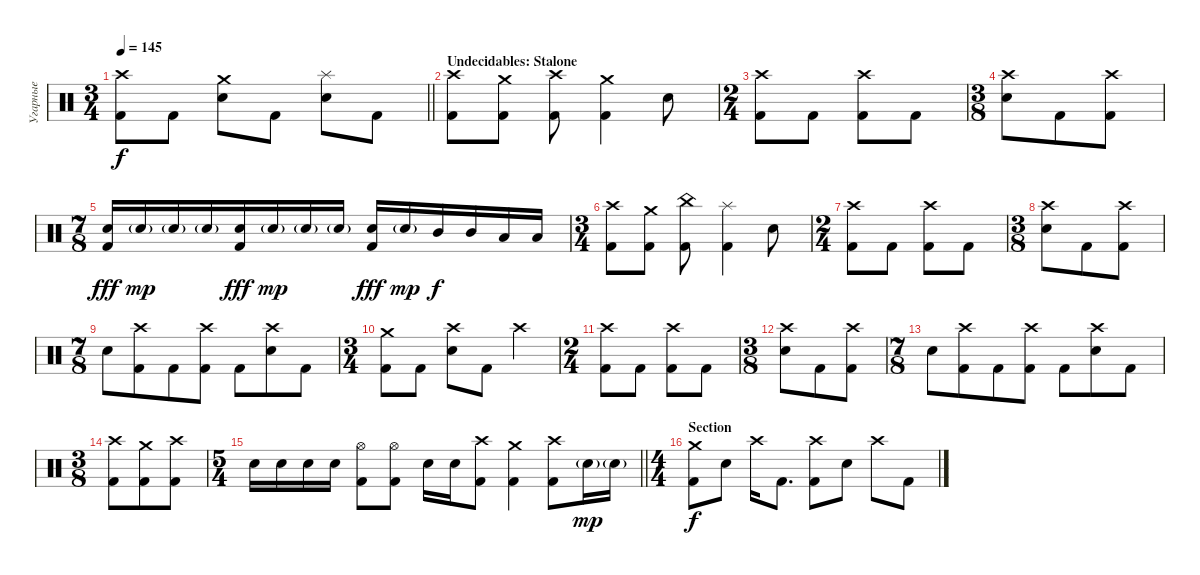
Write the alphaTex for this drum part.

\track ("Угарные" "Угарные") {instrument percussion}
\staff {score}
\articulation defaults
\ts (3 4)
\tempo 145
\clef neutral
\barLineRight lightlight
\ks c
("Kick (hit) 2" "Crash high (hit)").8{dy f} "Kick (hit) 2".8 ("Crash medium (hit)" "Electric Snare (hit)").8 "Kick (hit) 2".8 ("Splash (hit)" "Electric Snare (hit)").8 "Kick (hit) 2".8 |
\section ("" "Undecidables: Stalone")
("Crash high (hit)" "Kick (hit) 2").8 ("Crash medium (hit)" "Kick (hit) 2").8 ("Crash high (hit)" "Kick (hit) 2").8 ("Crash medium (hit)" "Kick (hit) 2").4 "Electric Snare (hit)".8 |
\ts (2 4)
("Kick (hit) 2" "Crash high (hit)").8 "Kick (hit) 2".8 ("Kick (hit) 2" "Crash high (hit)").8 "Kick (hit) 2".8 |
\ts (3 8)
("Electric Snare (hit)" "Crash high (hit)").8 "Kick (hit) 2".8 ("Kick (hit) 2" "Crash high (hit)").8 |
\ts (7 8)
("Electric Snare (hit)" "Kick (hit) 2").16{dy fff} "Electric Snare (hit)"{g}.16{dy mp} "Electric Snare (hit)"{g}.16 "Electric Snare (hit)"{g}.16 ("Electric Snare (hit)" "Kick (hit) 2").16{dy fff} "Electric Snare (hit)"{g}.16{dy mp} "Electric Snare (hit)"{g}.16 "Electric Snare (hit)"{g}.16 ("Electric Snare (hit)" "Kick (hit) 2").16{dy fff} "Electric Snare (hit)"{g}.16{dy mp} "Mid Tom (hit)".16{dy f} "Mid Tom (hit)".16 "Low Tom (hit)".16 "Low Tom (hit)".16 |
\ts (3 4)
("Crash high (hit)" "Kick (hit) 2").8 ("Crash medium (hit)" "Kick (hit) 2").8 ("China (hit)" "Kick (hit) 2").8 ("Splash (hit)" "Kick (hit) 2").4 "Electric Snare (hit)".8 |
\ts (2 4)
("Kick (hit) 2" "Crash high (hit)").8 "Kick (hit) 2".8 ("Kick (hit) 2" "Crash high (hit)").8 "Kick (hit) 2".8 |
\ts (3 8)
("Electric Snare (hit)" "Crash high (hit)").8 "Kick (hit) 2".8 ("Kick (hit) 2" "Crash high (hit)").8 |
\ts (7 8)
"Electric Snare (hit)".8 ("Kick (hit) 2" "Crash high (hit)").8 "Kick (hit) 2".8 ("Kick (hit) 2" "Crash high (hit)").8 "Kick (hit) 2".8 ("Electric Snare (hit)" "Crash high (hit)").8 "Kick (hit) 2".8 |
\ts (3 4)
("Kick (hit) 2" "Crash medium (hit)").8 "Kick (hit) 2".8 ("Electric Snare (hit)" "Crash high (hit)").8 "Kick (hit) 2".8 "Crash high (hit)".4 |
\ts (2 4)
("Kick (hit) 2" "Crash high (hit)").8 "Kick (hit) 2".8 ("Kick (hit) 2" "Crash high (hit)").8 "Kick (hit) 2".8 |
\ts (3 8)
("Electric Snare (hit)" "Crash high (hit)").8 "Kick (hit) 2".8 ("Kick (hit) 2" "Crash high (hit)").8 |
\ts (7 8)
"Electric Snare (hit)".8 ("Kick (hit) 2" "Crash high (hit)").8 "Kick (hit) 2".8 ("Kick (hit) 2" "Crash high (hit)").8 "Kick (hit) 2".8 ("Electric Snare (hit)" "Crash high (hit)").8 "Kick (hit) 2".8 |
\ts (3 8)
("Crash high (hit)" "Kick (hit) 2").8 ("Crash medium (hit)" "Kick (hit) 2").8 ("Crash high (hit)" "Kick (hit) 2").8 |
\ts (5 4)
\barLineRight lightlight "Electric Snare (hit)".16 "Electric Snare (hit)".16 "Electric Snare (hit)".16 "Electric Snare (hit)".16
("Kick (hit) 2" "Hi-Hat (open)").8 ("Kick (hit) 2" "Hi-Hat (open)").8 "Electric Snare (hit)".16 "Electric Snare (hit)".16 ("Kick (hit) 2" "Crash high (hit)").8 ("Kick (hit) 2" "Crash medium (hit)").4 ("Kick (hit) 2" "Crash high (hit)").8 "Electric Snare (hit)"{g}.16{dy mp} "Electric Snare (hit)"{g}.16 |
\ts (4 4)
\section ("" "Section")
("Kick (hit) 2" "Crash medium (hit)").8{dy f} "Electric Snare (hit)".8 "Crash high (hit)".16 "Kick (hit) 2".8{d} ("Kick (hit) 2" "Crash high (hit)").8 "Electric Snare (hit)".8 "Crash high (hit)".8 "Kick (hit) 2".8
